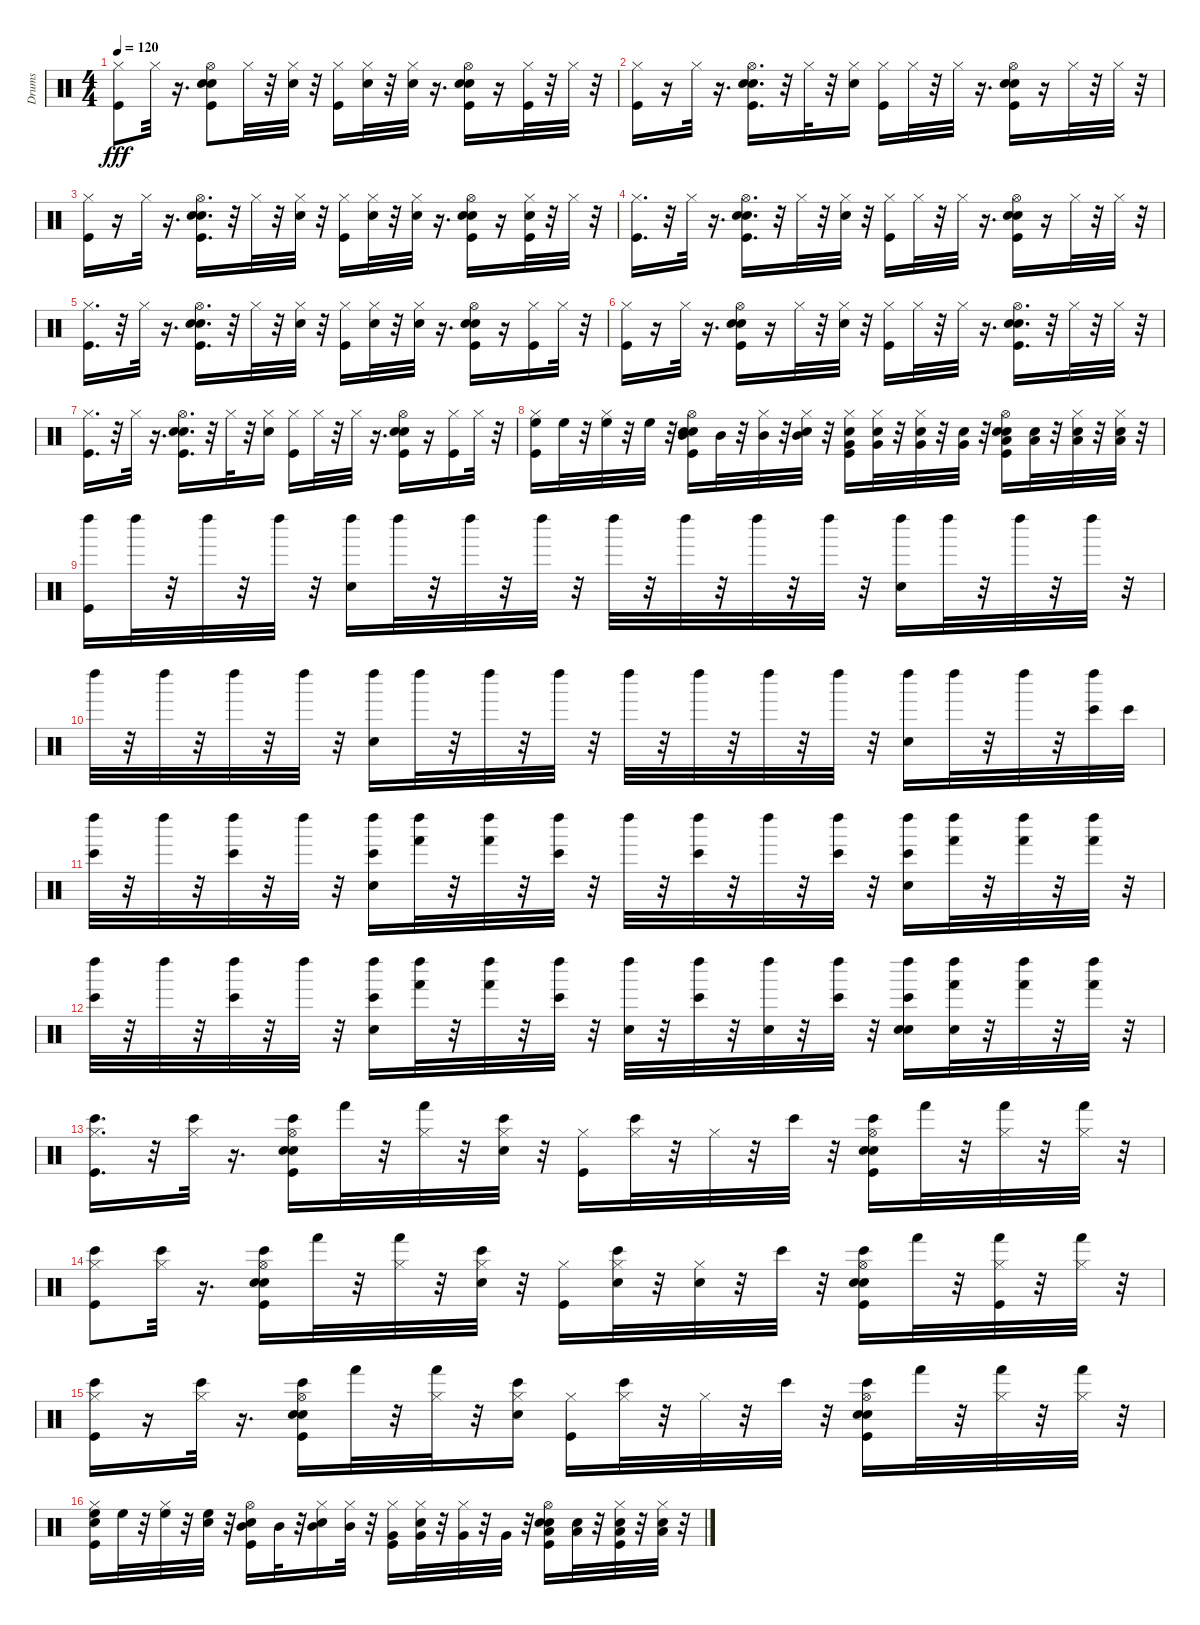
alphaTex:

\track ("Drums" "Drums") {instrument percussion}
\staff {score}
\articulation defaults
\ts (4 4)
\tempo 120
\clef neutral
\ks c
("Hi-Hat (closed)" "Kick (hit)").8{dy fff} "Hi-Hat (closed)".32 r.16{d} ("Hi-Hat (open)" "Kick (hit)" "Hand Clap (hit)" "Electric Snare (hit)").8 "Hi-Hat (closed)".32 r.32 ("Hi-Hat (closed)" "Electric Snare (hit)").32 r.32 ("Hi-Hat (closed)" "Kick (hit)").16 ("Hi-Hat (closed)" "Electric Snare (hit)").32 r.32 ("Hi-Hat (closed)" "Electric Snare (hit)").32 r.16{d} ("Hi-Hat (open)" "Kick (hit)" "Hand Clap (hit)" "Electric Snare (hit)").16 r.16 ("Hi-Hat (closed)" "Kick (hit)").32 r.32 "Hi-Hat (closed)".32 r.32 |
("Hi-Hat (closed)" "Kick (hit)").16 r.16 "Hi-Hat (closed)".32 r.16{d} ("Hi-Hat (open)" "Kick (hit)" "Hand Clap (hit)" "Electric Snare (hit)").16{d} r.32 "Hi-Hat (closed)".32 r.32 ("Hi-Hat (closed)" "Electric Snare (hit)").16 ("Hi-Hat (closed)" "Kick (hit)").16 "Hi-Hat (closed)".32 r.32 "Hi-Hat (closed)".32 r.16{d} ("Hi-Hat (open)" "Kick (hit)" "Hand Clap (hit)" "Electric Snare (hit)").16 r.16 "Hi-Hat (closed)".32 r.32 "Hi-Hat (closed)".32 r.32 |
("Hi-Hat (closed)" "Kick (hit)").16 r.16 "Hi-Hat (closed)".32 r.16{d} ("Hi-Hat (open)" "Kick (hit)" "Hand Clap (hit)" "Electric Snare (hit)").16{d} r.32 "Hi-Hat (closed)".32 r.32 ("Hi-Hat (closed)" "Electric Snare (hit)").32 r.32 ("Hi-Hat (closed)" "Kick (hit)").16 ("Hi-Hat (closed)" "Electric Snare (hit)").32 r.32 ("Hi-Hat (closed)" "Electric Snare (hit)").32 r.16{d} ("Hi-Hat (open)" "Kick (hit)" "Hand Clap (hit)" "Electric Snare (hit)").16 r.16 ("Hi-Hat (closed)" "Kick (hit)" "Electric Snare (hit)").32 r.32 "Hi-Hat (closed)".32 r.32 |
("Hi-Hat (closed)" "Kick (hit)").16{d} r.32 "Hi-Hat (closed)".32 r.16{d} ("Hi-Hat (open)" "Kick (hit)" "Hand Clap (hit)" "Electric Snare (hit)").16{d} r.32 "Hi-Hat (closed)".32 r.32 ("Hi-Hat (closed)" "Electric Snare (hit)").32 r.32 ("Hi-Hat (closed)" "Kick (hit)").16 "Hi-Hat (closed)".32 r.32 "Hi-Hat (closed)".32 r.16{d} ("Hi-Hat (open)" "Kick (hit)" "Hand Clap (hit)" "Electric Snare (hit)").16 r.16 "Hi-Hat (closed)".32 r.32 "Hi-Hat (closed)".32 r.32 |
("Hi-Hat (closed)" "Kick (hit)").16{d} r.32 "Hi-Hat (closed)".32 r.16{d} ("Hi-Hat (open)" "Kick (hit)" "Hand Clap (hit)" "Electric Snare (hit)").16{d} r.32 "Hi-Hat (closed)".32 r.32 ("Hi-Hat (closed)" "Electric Snare (hit)").32 r.32 ("Hi-Hat (closed)" "Kick (hit)").16 ("Hi-Hat (closed)" "Electric Snare (hit)").32 r.32 ("Hi-Hat (closed)" "Electric Snare (hit)").32 r.16{d} ("Hi-Hat (open)" "Kick (hit)" "Hand Clap (hit)" "Electric Snare (hit)").16 r.16 ("Hi-Hat (closed)" "Kick (hit)").16 "Hi-Hat (closed)".32 r.32 |
("Hi-Hat (closed)" "Kick (hit)").16 r.16 "Hi-Hat (closed)".32 r.16{d} ("Hi-Hat (open)" "Kick (hit)" "Hand Clap (hit)" "Electric Snare (hit)").16 r.16 "Hi-Hat (closed)".32 r.32 ("Hi-Hat (closed)" "Electric Snare (hit)").32 r.32 ("Hi-Hat (closed)" "Kick (hit)").16 "Hi-Hat (closed)".32 r.32 "Hi-Hat (closed)".32 r.16{d} ("Hi-Hat (open)" "Kick (hit)" "Hand Clap (hit)" "Electric Snare (hit)").16{d} r.32 "Hi-Hat (closed)".32 r.32 "Hi-Hat (closed)".32 r.32 |
("Hi-Hat (closed)" "Kick (hit)").16{d} r.32 "Hi-Hat (closed)".32 r.16{d} ("Hi-Hat (open)" "Kick (hit)" "Hand Clap (hit)" "Electric Snare (hit)").16{d} r.32 "Hi-Hat (closed)".32 r.32 ("Hi-Hat (closed)" "Electric Snare (hit)").16 ("Hi-Hat (closed)" "Kick (hit)").16 "Hi-Hat (closed)".32 r.32 "Hi-Hat (closed)".32 r.16{d} ("Hi-Hat (open)" "Kick (hit)" "Hand Clap (hit)" "Electric Snare (hit)").16 r.16 ("Hi-Hat (closed)" "Kick (hit)").16 "Hi-Hat (closed)".32 r.32 |
("Hi-Hat (closed)" "Kick (hit)" "High Floor Tom (hit)").16 "High Floor Tom (hit)".32 r.32 ("Hi-Hat (closed)" "High Floor Tom (hit)").32 r.32 "High Floor Tom (hit)".32 r.32 ("Hi-Hat (open)" "Kick (hit)" "Mid Tom (hit)" "Hand Clap (hit)" "Electric Snare (hit)").16 "Mid Tom (hit)".32 r.32 ("Hi-Hat (closed)" "Mid Tom (hit)").32 r.32 ("Hi-Hat (closed)" "Electric Snare (hit)" "Mid Tom (hit)").32 r.32 ("Hi-Hat (closed)" "Kick (hit)" "Very Low Tom (hit)" "Electric Snare (hit)").16 ("Hi-Hat (closed)" "Electric Snare (hit)" "Very Low Tom (hit)").32 r.32 ("Hi-Hat (closed)" "Electric Snare (hit)" "Very Low Tom (hit)").32 r.32 ("Very Low Tom (hit)" "Electric Snare (hit)").32 r.32 ("Low Floor Tom (hit)" "Kick (hit)" "Hi-Hat (open)" "Hand Clap (hit)" "Electric Snare (hit)").16 ("Low Floor Tom (hit)" "Electric Snare (hit)").32 r.32 ("Low Floor Tom (hit)" "Electric Snare (hit)" "Hi-Hat (closed)").32 r.32 ("Low Floor Tom (hit)" "Electric Snare (hit)" "Hi-Hat (closed)").32 r.32 |
("Left Maraca (hit)" "Kick (hit)").16 "Left Maraca (hit)".32 r.32 "Left Maraca (hit)".32 r.32 "Left Maraca (hit)".32 r.32 ("Left Maraca (hit)" "Hand Clap (hit)").16 "Left Maraca (hit)".32 r.32 "Left Maraca (hit)".32 r.32 "Left Maraca (hit)".32 r.32 "Left Maraca (hit)".32 r.32 "Left Maraca (hit)".32 r.32 "Left Maraca (hit)".32 r.32 "Left Maraca (hit)".32 r.32 ("Left Maraca (hit)" "Hand Clap (hit)").16 "Left Maraca (hit)".32 r.32 "Left Maraca (hit)".32 r.32 "Left Maraca (hit)".32 r.32 |
"Left Maraca (hit)".32 r.32 "Left Maraca (hit)".32 r.32 "Left Maraca (hit)".32 r.32 "Left Maraca (hit)".32 r.32 ("Left Maraca (hit)" "Hand Clap (hit)").16 "Left Maraca (hit)".32 r.32 "Left Maraca (hit)".32 r.32 "Left Maraca (hit)".32 r.32 "Left Maraca (hit)".32 r.32 "Left Maraca (hit)".32 r.32 "Left Maraca (hit)".32 r.32 "Left Maraca (hit)".32 r.32 ("Left Maraca (hit)" "Hand Clap (hit)").16 "Left Maraca (hit)".32 r.32 "Left Maraca (hit)".32 r.32 ("Bongo High (hit)" "Left Maraca (hit)").32 "Bongo High (hit)".32 |
("Bongo High (hit)" "Left Maraca (hit)").32 r.32 "Left Maraca (hit)".32 r.32 ("Bongo High (hit)" "Left Maraca (hit)").32 r.32 "Left Maraca (hit)".32 r.32 ("Bongo High (hit)" "Hand Clap (hit)" "Left Maraca (hit)").16 ("Hand (hit)" "Left Maraca (hit)").32 r.32 ("Hand (hit)" "Left Maraca (hit)").32 r.32 ("Bongo High (hit)" "Left Maraca (hit)").32 r.32 "Left Maraca (hit)".32 r.32 ("Bongo High (hit)" "Left Maraca (hit)").32 r.32 "Left Maraca (hit)".32 r.32 ("Bongo High (hit)" "Left Maraca (hit)").32 r.32 ("Bongo High (hit)" "Hand Clap (hit)" "Left Maraca (hit)").16 ("Hand (hit)" "Left Maraca (hit)").32 r.32 ("Hand (hit)" "Left Maraca (hit)").32 r.32 ("Hand (hit)" "Left Maraca (hit)").32 r.32 |
("Bongo High (hit)" "Left Maraca (hit)").32 r.32 "Left Maraca (hit)".32 r.32 ("Bongo High (hit)" "Left Maraca (hit)").32 r.32 "Left Maraca (hit)".32 r.32 ("Bongo High (hit)" "Hand Clap (hit)" "Left Maraca (hit)").16 ("Hand (hit)" "Left Maraca (hit)").32 r.32 ("Hand (hit)" "Left Maraca (hit)").32 r.32 ("Bongo High (hit)" "Left Maraca (hit)").32 r.32 ("Left Maraca (hit)" "Electric Snare (hit)").32 r.32 ("Bongo High (hit)" "Left Maraca (hit)").32 r.32 ("Left Maraca (hit)" "Electric Snare (hit)").32 r.32 ("Bongo High (hit)" "Left Maraca (hit)").32 r.32 ("Bongo High (hit)" "Hand Clap (hit)" "Left Maraca (hit)" "Electric Snare (hit)").16 ("Hand (hit)" "Electric Snare (hit)" "Left Maraca (hit)").32 r.32 ("Hand (hit)" "Left Maraca (hit)").32 r.32 ("Hand (hit)" "Left Maraca (hit)").32 r.32 |
("Hi-Hat (closed)" "Kick (hit)" "Bongo High (hit)").16{d} r.32 ("Hi-Hat (closed)" "Bongo High (hit)").32 r.16{d} ("Hi-Hat (open)" "Kick (hit)" "Bongo High (hit)" "Hand Clap (hit)" "Electric Snare (hit)").16 "Hand (hit)".32 r.32 ("Hi-Hat (closed)" "Hand (hit)").32 r.32 ("Hi-Hat (closed)" "Electric Snare (hit)" "Bongo High (hit)").32 r.32 ("Hi-Hat (closed)" "Kick (hit)").16 ("Hi-Hat (closed)" "Bongo High (hit)").32 r.32 "Hi-Hat (closed)".32 r.32 "Bongo High (hit)".32 r.32 ("Hi-Hat (open)" "Kick (hit)" "Bongo High (hit)" "Hand Clap (hit)" "Electric Snare (hit)").16 "Hand (hit)".32 r.32 ("Hi-Hat (closed)" "Hand (hit)").32 r.32 ("Hi-Hat (closed)" "Hand (hit)").32 r.32 |
("Hi-Hat (closed)" "Kick (hit)" "Bongo High (hit)").8 ("Hi-Hat (closed)" "Bongo High (hit)").32 r.16{d} ("Hi-Hat (open)" "Kick (hit)" "Bongo High (hit)" "Hand Clap (hit)" "Electric Snare (hit)").16 "Hand (hit)".32 r.32 ("Hi-Hat (closed)" "Hand (hit)").32 r.32 ("Hi-Hat (closed)" "Electric Snare (hit)" "Bongo High (hit)").32 r.32 ("Hi-Hat (closed)" "Kick (hit)").16 ("Hi-Hat (closed)" "Electric Snare (hit)" "Bongo High (hit)").32 r.32 ("Hi-Hat (closed)" "Electric Snare (hit)").32 r.32 "Bongo High (hit)".32 r.32 ("Hi-Hat (open)" "Kick (hit)" "Bongo High (hit)" "Hand Clap (hit)" "Electric Snare (hit)").16 "Hand (hit)".32 r.32 ("Hi-Hat (closed)" "Kick (hit)" "Hand (hit)").32 r.32 ("Hi-Hat (closed)" "Hand (hit)").32 r.32 |
("Hi-Hat (closed)" "Kick (hit)" "Bongo High (hit)").16 r.16 ("Hi-Hat (closed)" "Bongo High (hit)").32 r.16{d} ("Hi-Hat (open)" "Kick (hit)" "Bongo High (hit)" "Hand Clap (hit)" "Electric Snare (hit)").16 "Hand (hit)".32 r.32 ("Hi-Hat (closed)" "Hand (hit)").32 r.32 ("Hi-Hat (closed)" "Electric Snare (hit)" "Bongo High (hit)").16 ("Hi-Hat (closed)" "Kick (hit)").16 ("Hi-Hat (closed)" "Bongo High (hit)").32 r.32 "Hi-Hat (closed)".32 r.32 "Bongo High (hit)".32 r.32 ("Hi-Hat (open)" "Kick (hit)" "Bongo High (hit)" "Hand Clap (hit)" "Electric Snare (hit)").16 "Hand (hit)".32 r.32 ("Hi-Hat (closed)" "Hand (hit)").32 r.32 ("Hi-Hat (closed)" "Hand (hit)").32 r.32 |
("Hi-Hat (closed)" "Kick (hit)" "High Floor Tom (hit)" "Electric Snare (hit)").16 "High Floor Tom (hit)".32 r.32 ("Hi-Hat (closed)" "High Floor Tom (hit)").32 r.32 ("High Floor Tom (hit)" "Electric Snare (hit)").32 r.32 ("Hi-Hat (open)" "Kick (hit)" "Mid Tom (hit)" "Hand Clap (hit)").16 "Mid Tom (hit)".32 r.32 ("Hi-Hat (closed)" "Electric Snare (hit)" "Mid Tom (hit)").16 ("Hi-Hat (closed)" "Mid Tom (hit)").32 r.32 ("Hi-Hat (closed)" "Kick (hit)" "Very Low Tom (hit)").16 ("Hi-Hat (closed)" "Electric Snare (hit)" "Very Low Tom (hit)").32 r.32 ("Hi-Hat (closed)" "Very Low Tom (hit)").32 r.32 "Very Low Tom (hit)".32 r.32 ("Low Floor Tom (hit)" "Kick (hit)" "Hi-Hat (open)" "Hand Clap (hit)" "Electric Snare (hit)").16 ("Low Floor Tom (hit)" "Electric Snare (hit)").32 r.32 ("Low Floor Tom (hit)" "Kick (hit)" "Hi-Hat (closed)" "Electric Snare (hit)").32 r.32 ("Low Floor Tom (hit)" "Electric Snare (hit)" "Hi-Hat (closed)").32 r.32
